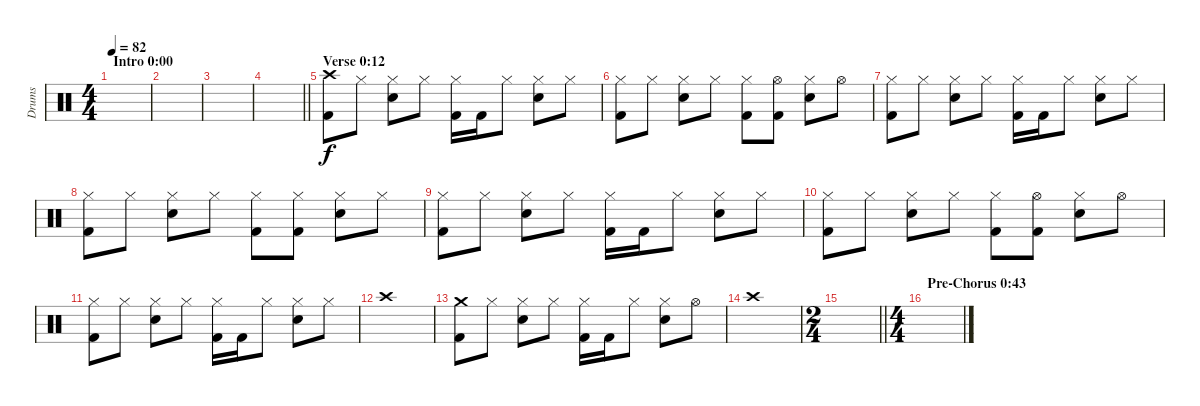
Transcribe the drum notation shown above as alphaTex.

\track ("Drums" "Drums") {instrument percussion}
\staff {score}
\articulation defaults
\ts (4 4)
\section ("" "Intro 0:00")
\tempo 82
\clef neutral
\ks c
|
|
|
\barLineRight lightlight
|
\section ("" "Verse 0:12")
("Crash high (hit)" "Kick (hit) 2").8 "Hi-Hat (closed)".8 ("Hi-Hat (closed)" "Snare (hit) 2").8 "Hi-Hat (closed)".8 ("Hi-Hat (closed)" "Kick (hit) 2").16 "Kick (hit) 2".16 "Hi-Hat (closed)".8 ("Hi-Hat (closed)" "Snare (hit) 2").8 "Hi-Hat (closed)".8 |
("Hi-Hat (closed)" "Kick (hit) 2").8 "Hi-Hat (closed)".8 ("Hi-Hat (closed)" "Snare (hit) 2").8 "Hi-Hat (closed)".8 ("Hi-Hat (closed)" "Kick (hit) 2").8 ("Hi-Hat (open)" "Kick (hit) 2").8 ("Hi-Hat (closed)" "Snare (hit) 2").8 "Hi-Hat (open)".8 |
("Hi-Hat (closed)" "Kick (hit) 2").8 "Hi-Hat (closed)".8 ("Hi-Hat (closed)" "Snare (hit) 2").8 "Hi-Hat (closed)".8 ("Hi-Hat (closed)" "Kick (hit) 2").16 "Kick (hit) 2".16 "Hi-Hat (closed)".8 ("Hi-Hat (closed)" "Snare (hit) 2").8 "Hi-Hat (closed)".8 |
("Hi-Hat (closed)" "Kick (hit) 2").8 "Hi-Hat (closed)".8 ("Hi-Hat (closed)" "Snare (hit) 2").8 "Hi-Hat (closed)".8 ("Hi-Hat (closed)" "Kick (hit) 2").8 ("Hi-Hat (closed)" "Kick (hit) 2").8 ("Hi-Hat (closed)" "Snare (hit) 2").8 "Hi-Hat (closed)".8 |
("Hi-Hat (closed)" "Kick (hit) 2").8 "Hi-Hat (closed)".8 ("Hi-Hat (closed)" "Snare (hit) 2").8 "Hi-Hat (closed)".8 ("Hi-Hat (closed)" "Kick (hit) 2").16 "Kick (hit) 2".16 "Hi-Hat (closed)".8 ("Hi-Hat (closed)" "Snare (hit) 2").8 "Hi-Hat (closed)".8 |
("Hi-Hat (closed)" "Kick (hit) 2").8 "Hi-Hat (closed)".8 ("Hi-Hat (closed)" "Snare (hit) 2").8 "Hi-Hat (closed)".8 ("Hi-Hat (closed)" "Kick (hit) 2").8 ("Hi-Hat (open)" "Kick (hit) 2").8 ("Hi-Hat (closed)" "Snare (hit) 2").8 "Hi-Hat (open)".8 |
("Hi-Hat (closed)" "Kick (hit) 2").8 "Hi-Hat (closed)".8 ("Hi-Hat (closed)" "Snare (hit) 2").8 "Hi-Hat (closed)".8 ("Hi-Hat (closed)" "Kick (hit) 2").16 "Kick (hit) 2".16 "Hi-Hat (closed)".8 ("Hi-Hat (closed)" "Snare (hit) 2").8 "Hi-Hat (closed)".8 |
"Crash high (hit)".1 |
("Crash medium (hit)" "Kick (hit) 2").8 "Hi-Hat (closed)".8 ("Hi-Hat (closed)" "Snare (hit) 2").8 "Hi-Hat (closed)".8 ("Hi-Hat (closed)" "Kick (hit) 2").16 "Kick (hit) 2".16 "Hi-Hat (closed)".8 ("Hi-Hat (closed)" "Snare (hit) 2").8 "Hi-Hat (open)".8 |
"Crash high (hit)".1 |
\ts (2 4)
\barLineRight lightlight
|
\ts (4 4)
\section ("" "Pre-Chorus 0:43")
